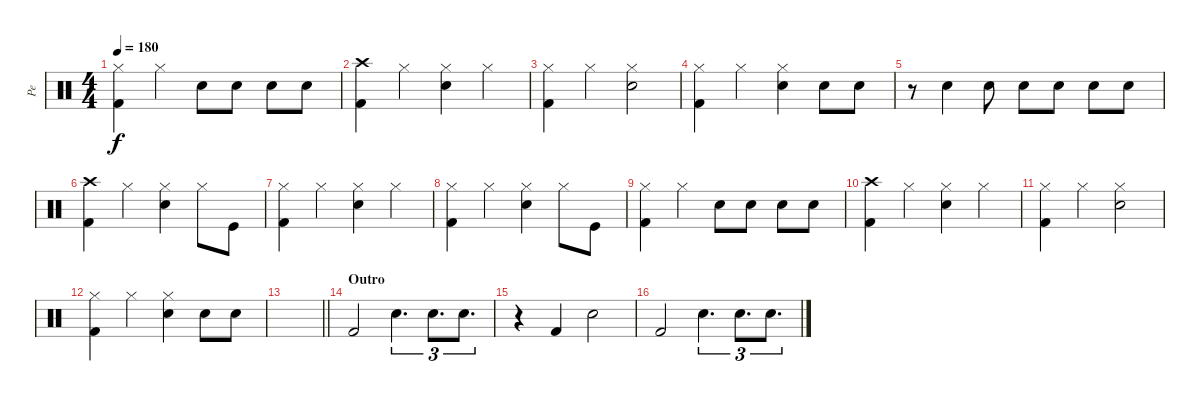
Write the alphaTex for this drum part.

\track ("Pe" "Pe") {instrument percussion}
\staff {score}
\articulation defaults
\ts (4 4)
\tempo 180
\clef neutral
\ks c
("Kick (hit) 2" "Hi-Hat (closed)").4{dy f} "Hi-Hat (closed)".4 "Electric Snare (hit)".8 "Electric Snare (hit)".8 "Electric Snare (hit)".8 "Electric Snare (hit)".8 |
("Kick (hit) 2" "Crash high (hit)").4 "Hi-Hat (closed)".4 ("Electric Snare (hit)" "Hi-Hat (closed)").4 "Hi-Hat (closed)".4 |
("Kick (hit) 2" "Hi-Hat (closed)").4 "Hi-Hat (closed)".4 ("Electric Snare (hit)" "Hi-Hat (closed)").2 |
("Kick (hit) 2" "Hi-Hat (closed)").4 "Hi-Hat (closed)".4 ("Electric Snare (hit)" "Hi-Hat (closed)").4 "Electric Snare (hit)".8 "Electric Snare (hit)".8 |
r.8 "Electric Snare (hit)".4 "Electric Snare (hit)".8 "Electric Snare (hit)".8 "Electric Snare (hit)".8 "Electric Snare (hit)".8 "Electric Snare (hit)".8 |
("Kick (hit) 2" "Crash high (hit)").4 "Hi-Hat (closed)".4 ("Electric Snare (hit)" "Hi-Hat (closed)").4 "Hi-Hat (closed)".8 "Kick (hit)".8 |
("Kick (hit) 2" "Hi-Hat (closed)").4 "Hi-Hat (closed)".4 ("Electric Snare (hit)" "Hi-Hat (closed)").4 "Hi-Hat (closed)".4 |
("Kick (hit) 2" "Hi-Hat (closed)").4 "Hi-Hat (closed)".4 ("Electric Snare (hit)" "Hi-Hat (closed)").4 "Hi-Hat (closed)".8 "Kick (hit)".8 |
("Kick (hit) 2" "Hi-Hat (closed)").4 "Hi-Hat (closed)".4 "Electric Snare (hit)".8 "Electric Snare (hit)".8 "Electric Snare (hit)".8 "Electric Snare (hit)".8 |
("Kick (hit) 2" "Crash high (hit)").4 "Hi-Hat (closed)".4 ("Electric Snare (hit)" "Hi-Hat (closed)").4 "Hi-Hat (closed)".4 |
("Kick (hit) 2" "Hi-Hat (closed)").4 "Hi-Hat (closed)".4 ("Electric Snare (hit)" "Hi-Hat (closed)").2 |
("Kick (hit) 2" "Hi-Hat (closed)").4 "Hi-Hat (closed)".4 ("Electric Snare (hit)" "Hi-Hat (closed)").4 "Electric Snare (hit)".8 "Electric Snare (hit)".8 |
\barLineRight lightlight
|
\section ("" "Outro")
"Kick (hit) 2".2{volume 9} "Electric Snare (hit)".4{d tu (3 2)} "Electric Snare (hit)".8{d tu (3 2)} "Electric Snare (hit)".8{d tu (3 2)} |
r.4 "Kick (hit) 2".4 "Electric Snare (hit)".2 |
"Kick (hit) 2".2 "Electric Snare (hit)".4{d tu (3 2)} "Electric Snare (hit)".8{d tu (3 2)} "Electric Snare (hit)".8{d tu (3 2)}
